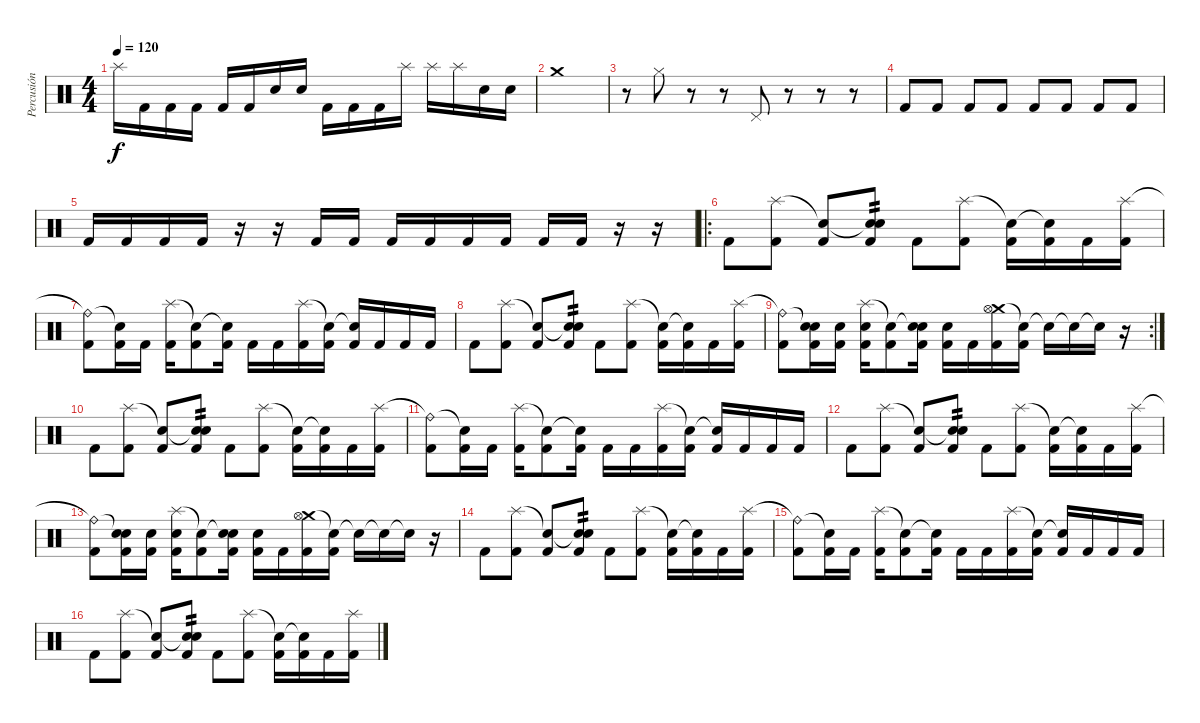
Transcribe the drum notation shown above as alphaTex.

\track ("Percusión" "Percusión") {instrument percussion}
\staff {score}
\articulation defaults
\ts (4 4)
\tempo 120
\clef neutral
\ks c "Splash (hit)".16{dy f} "Kick (hit) 2".16 "Kick (hit) 2".16 "Kick (hit) 2".16 "Kick (hit) 2".16 "Kick (hit) 2".16 "Electric Snare (hit)".16 "Electric Snare (hit)".16 "Kick (hit) 2".16 "Kick (hit) 2".16 "Kick (hit) 2".16 "Splash (hit)".16 "Splash (hit)".16 "Splash (hit)".16 "Electric Snare (hit)".16 "Electric Snare (hit)".16
|
"Crash medium (hit)".1 |
r.8 "Hi-Hat (closed)".8 r.8 r.8 "Pedal Hi-Hat (hit)".8 r.8 r.8 r.8 |
"Kick (hit) 2".8 "Kick (hit) 2".8 "Kick (hit) 2".8 "Kick (hit) 2".8 "Kick (hit) 2".8 "Kick (hit) 2".8 "Kick (hit) 2".8 "Kick (hit) 2".8 |
"Kick (hit) 2".16 "Kick (hit) 2".16 "Kick (hit) 2".16 "Kick (hit) 2".16 r.16 r.16 "Kick (hit) 2".16 "Kick (hit) 2".16 "Kick (hit) 2".16 "Kick (hit) 2".16 "Kick (hit) 2".16 "Kick (hit) 2".16 "Kick (hit) 2".16 "Kick (hit) 2".16 r.16 r.16 |
\ro "Kick (hit) 2".8
("Splash (hit)" "Kick (hit) 2").8 ("Snare (hit)"{t} "Kick (hit) 2").8 ("Snare (hit)"{t} "Electric Snare (hit)" "Kick (hit) 2").8{tp 2} "Kick (hit) 2".8 ("Splash (hit)" "Kick (hit) 2").8 ("Snare (hit)"{t} "Kick (hit) 2").16 ("Snare (hit)"{t} "Kick (hit) 2").16 "Kick (hit) 2".16 ("Splash (hit)" "Kick (hit) 2").16 |
("Ride (bell)"{t} "Kick (hit) 2").8 ("Snare (hit)"{t} "Kick (hit) 2").16 "Kick (hit) 2".16 ("Splash (hit)" "Kick (hit) 2").16 ("Snare (hit)"{t} "Kick (hit) 2").8 ("Snare (hit)"{t} "Kick (hit) 2").16 "Kick (hit) 2".16 "Kick (hit) 2".16 ("Splash (hit)" "Kick (hit) 2").16 ("Snare (hit)"{t} "Kick (hit) 2").16 ("Snare (hit)"{t} "Kick (hit) 2").16 "Kick (hit) 2".16 "Kick (hit) 2".16 "Kick (hit) 2".16 |
"Kick (hit) 2".8 ("Splash (hit)" "Kick (hit) 2").8 ("Snare (hit)"{t} "Kick (hit) 2").8 ("Snare (hit)"{t} "Electric Snare (hit)" "Kick (hit) 2").8{tp 2} "Kick (hit) 2".8 ("Splash (hit)" "Kick (hit) 2").8 ("Snare (hit)"{t} "Kick (hit) 2").16 ("Snare (hit)"{t} "Kick (hit) 2").16 "Kick (hit) 2".16 ("Splash (hit)" "Kick (hit) 2").16 |
\rc 2
("Ride (bell)"{t} "Kick (hit) 2").8 ("Snare (hit)"{t} "Electric Snare (hit)" "Kick (hit) 2").16 ("Electric Snare (hit)" "Kick (hit) 2").16 ("Splash (hit)" "Electric Snare (hit)" "Kick (hit) 2").16 ("Snare (hit)"{t} "Kick (hit) 2").8 ("Snare (hit)"{t} "Electric Snare (hit)" "Kick (hit) 2").16 ("Electric Snare (hit)" "Kick (hit) 2").16 "Kick (hit) 2".16 ("Crash medium (hit)" "Hi-Hat (open)" "Kick (hit) 2").16 ("Snare (hit)"{t} "Kick (hit) 2").16 "Snare (hit)"{t}.16 "Snare (hit)"{t}.16 "Snare (hit)"{t}.16 r.16 |
"Kick (hit) 2".8 ("Splash (hit)" "Kick (hit) 2").8 ("Snare (hit)"{t} "Kick (hit) 2").8 ("Snare (hit)"{t} "Electric Snare (hit)" "Kick (hit) 2").8{tp 2} "Kick (hit) 2".8 ("Splash (hit)" "Kick (hit) 2").8 ("Snare (hit)"{t} "Kick (hit) 2").16 ("Snare (hit)"{t} "Kick (hit) 2").16 "Kick (hit) 2".16 ("Splash (hit)" "Kick (hit) 2").16 |
("Ride (bell)"{t} "Kick (hit) 2").8 ("Snare (hit)"{t} "Kick (hit) 2").16 "Kick (hit) 2".16 ("Splash (hit)" "Kick (hit) 2").16 ("Snare (hit)"{t} "Kick (hit) 2").8 ("Snare (hit)"{t} "Kick (hit) 2").16 "Kick (hit) 2".16 "Kick (hit) 2".16 ("Splash (hit)" "Kick (hit) 2").16 ("Snare (hit)"{t} "Kick (hit) 2").16 ("Snare (hit)"{t} "Kick (hit) 2").16 "Kick (hit) 2".16 "Kick (hit) 2".16 "Kick (hit) 2".16 |
"Kick (hit) 2".8 ("Splash (hit)" "Kick (hit) 2").8 ("Snare (hit)"{t} "Kick (hit) 2").8 ("Snare (hit)"{t} "Electric Snare (hit)" "Kick (hit) 2").8{tp 2} "Kick (hit) 2".8 ("Splash (hit)" "Kick (hit) 2").8 ("Snare (hit)"{t} "Kick (hit) 2").16 ("Snare (hit)"{t} "Kick (hit) 2").16 "Kick (hit) 2".16 ("Splash (hit)" "Kick (hit) 2").16 |
("Ride (bell)"{t} "Kick (hit) 2").8 ("Snare (hit)"{t} "Electric Snare (hit)" "Kick (hit) 2").16 ("Electric Snare (hit)" "Kick (hit) 2").16 ("Splash (hit)" "Electric Snare (hit)" "Kick (hit) 2").16 ("Snare (hit)"{t} "Kick (hit) 2").8 ("Snare (hit)"{t} "Electric Snare (hit)" "Kick (hit) 2").16 ("Electric Snare (hit)" "Kick (hit) 2").16 "Kick (hit) 2".16 ("Crash medium (hit)" "Hi-Hat (open)" "Kick (hit) 2").16 ("Snare (hit)"{t} "Kick (hit) 2").16 "Snare (hit)"{t}.16 "Snare (hit)"{t}.16 "Snare (hit)"{t}.16 r.16 |
"Kick (hit) 2".8 ("Splash (hit)" "Kick (hit) 2").8 ("Snare (hit)"{t} "Kick (hit) 2").8 ("Snare (hit)"{t} "Electric Snare (hit)" "Kick (hit) 2").8{tp 2} "Kick (hit) 2".8 ("Splash (hit)" "Kick (hit) 2").8 ("Snare (hit)"{t} "Kick (hit) 2").16 ("Snare (hit)"{t} "Kick (hit) 2").16 "Kick (hit) 2".16 ("Splash (hit)" "Kick (hit) 2").16 |
("Ride (bell)"{t} "Kick (hit) 2").8 ("Snare (hit)"{t} "Kick (hit) 2").16 "Kick (hit) 2".16 ("Splash (hit)" "Kick (hit) 2").16 ("Snare (hit)"{t} "Kick (hit) 2").8 ("Snare (hit)"{t} "Kick (hit) 2").16 "Kick (hit) 2".16 "Kick (hit) 2".16 ("Splash (hit)" "Kick (hit) 2").16 ("Snare (hit)"{t} "Kick (hit) 2").16 ("Snare (hit)"{t} "Kick (hit) 2").16 "Kick (hit) 2".16 "Kick (hit) 2".16 "Kick (hit) 2".16 |
"Kick (hit) 2".8 ("Splash (hit)" "Kick (hit) 2").8 ("Snare (hit)"{t} "Kick (hit) 2").8 ("Snare (hit)"{t} "Electric Snare (hit)" "Kick (hit) 2").8{tp 2} "Kick (hit) 2".8 ("Splash (hit)" "Kick (hit) 2").8 ("Snare (hit)"{t} "Kick (hit) 2").16 ("Snare (hit)"{t} "Kick (hit) 2").16 "Kick (hit) 2".16 ("Splash (hit)" "Kick (hit) 2").16
